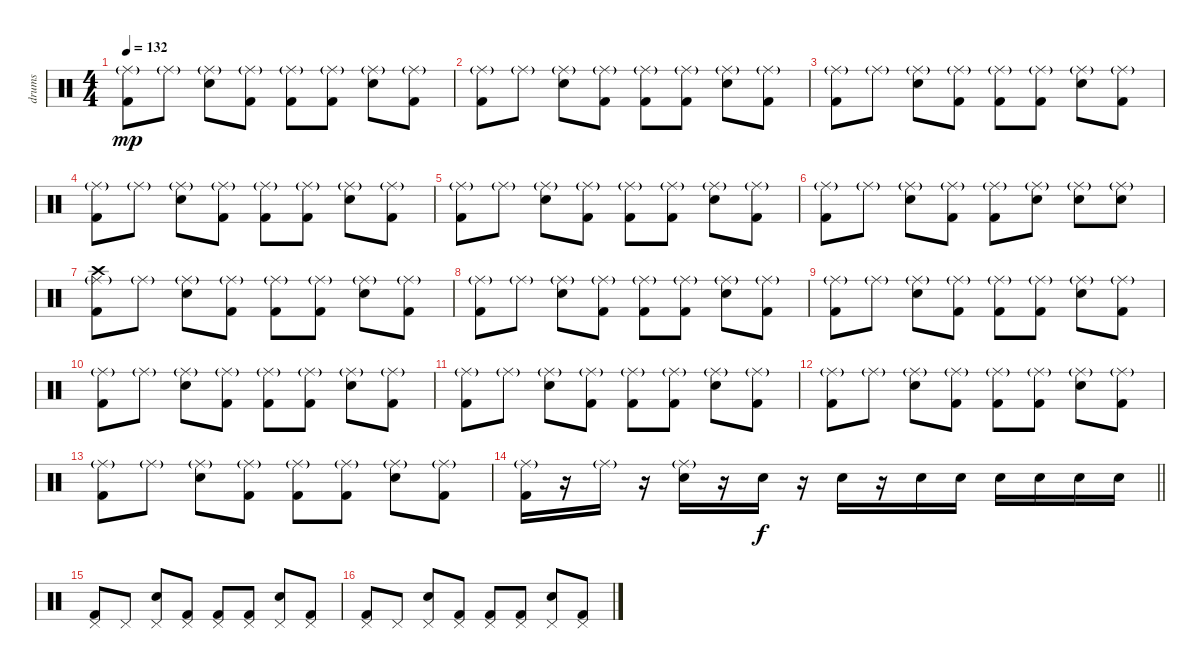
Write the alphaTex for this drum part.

\track ("drums" "drums") {instrument percussion}
\staff {score}
\articulation defaults
\ts (4 4)
\tempo 132
\clef neutral
\ks c
("Kick (hit) 2" "Ride (middle)"{g}).8{dy mp} "Ride (middle)"{g}.8 ("Electric Snare (hit)" "Ride (middle)"{g}).8 ("Kick (hit) 2" "Ride (middle)"{g}).8 ("Kick (hit) 2" "Ride (middle)"{g}).8 ("Kick (hit) 2" "Ride (middle)"{g}).8 ("Electric Snare (hit)" "Ride (middle)"{g}).8 ("Kick (hit) 2" "Ride (middle)"{g}).8 |
("Kick (hit) 2" "Ride (middle)"{g}).8 "Ride (middle)"{g}.8 ("Electric Snare (hit)" "Ride (middle)"{g}).8 ("Kick (hit) 2" "Ride (middle)"{g}).8 ("Kick (hit) 2" "Ride (middle)"{g}).8 ("Kick (hit) 2" "Ride (middle)"{g}).8 ("Electric Snare (hit)" "Ride (middle)"{g}).8 ("Kick (hit) 2" "Ride (middle)"{g}).8 |
("Kick (hit) 2" "Ride (middle)"{g}).8 "Ride (middle)"{g}.8 ("Electric Snare (hit)" "Ride (middle)"{g}).8 ("Kick (hit) 2" "Ride (middle)"{g}).8 ("Kick (hit) 2" "Ride (middle)"{g}).8 ("Kick (hit) 2" "Ride (middle)"{g}).8 ("Electric Snare (hit)" "Ride (middle)"{g}).8 ("Kick (hit) 2" "Ride (middle)"{g}).8 |
("Kick (hit) 2" "Ride (middle)"{g}).8 "Ride (middle)"{g}.8 ("Electric Snare (hit)" "Ride (middle)"{g}).8 ("Kick (hit) 2" "Ride (middle)"{g}).8 ("Kick (hit) 2" "Ride (middle)"{g}).8 ("Kick (hit) 2" "Ride (middle)"{g}).8 ("Electric Snare (hit)" "Ride (middle)"{g}).8 ("Kick (hit) 2" "Ride (middle)"{g}).8 |
("Kick (hit) 2" "Ride (middle)"{g}).8 "Ride (middle)"{g}.8 ("Electric Snare (hit)" "Ride (middle)"{g}).8 ("Kick (hit) 2" "Ride (middle)"{g}).8 ("Kick (hit) 2" "Ride (middle)"{g}).8 ("Kick (hit) 2" "Ride (middle)"{g}).8 ("Electric Snare (hit)" "Ride (middle)"{g}).8 ("Kick (hit) 2" "Ride (middle)"{g}).8 |
("Kick (hit) 2" "Ride (middle)"{g}).8 "Ride (middle)"{g}.8 ("Electric Snare (hit)" "Ride (middle)"{g}).8 ("Kick (hit) 2" "Ride (middle)"{g}).8 ("Kick (hit) 2" "Ride (middle)"{g}).8 ("Electric Snare (hit)" "Ride (middle)"{g}).8 ("Electric Snare (hit)" "Ride (middle)"{g}).8 ("Electric Snare (hit)" "Ride (middle)"{g}).8 |
("Kick (hit) 2" "Ride (middle)"{g} "Crash high (hit)").8 "Ride (middle)"{g}.8 ("Electric Snare (hit)" "Ride (middle)"{g}).8 ("Kick (hit) 2" "Ride (middle)"{g}).8 ("Kick (hit) 2" "Ride (middle)"{g}).8 ("Kick (hit) 2" "Ride (middle)"{g}).8 ("Electric Snare (hit)" "Ride (middle)"{g}).8 ("Kick (hit) 2" "Ride (middle)"{g}).8 |
("Kick (hit) 2" "Ride (middle)"{g}).8 "Ride (middle)"{g}.8 ("Electric Snare (hit)" "Ride (middle)"{g}).8 ("Kick (hit) 2" "Ride (middle)"{g}).8 ("Kick (hit) 2" "Ride (middle)"{g}).8 ("Kick (hit) 2" "Ride (middle)"{g}).8 ("Electric Snare (hit)" "Ride (middle)"{g}).8 ("Kick (hit) 2" "Ride (middle)"{g}).8 |
("Kick (hit) 2" "Ride (middle)"{g}).8 "Ride (middle)"{g}.8 ("Electric Snare (hit)" "Ride (middle)"{g}).8 ("Kick (hit) 2" "Ride (middle)"{g}).8 ("Kick (hit) 2" "Ride (middle)"{g}).8 ("Kick (hit) 2" "Ride (middle)"{g}).8 ("Electric Snare (hit)" "Ride (middle)"{g}).8 ("Kick (hit) 2" "Ride (middle)"{g}).8 |
("Kick (hit) 2" "Ride (middle)"{g}).8 "Ride (middle)"{g}.8 ("Electric Snare (hit)" "Ride (middle)"{g}).8 ("Kick (hit) 2" "Ride (middle)"{g}).8 ("Kick (hit) 2" "Ride (middle)"{g}).8 ("Kick (hit) 2" "Ride (middle)"{g}).8 ("Electric Snare (hit)" "Ride (middle)"{g}).8 ("Kick (hit) 2" "Ride (middle)"{g}).8 |
("Kick (hit) 2" "Ride (middle)"{g}).8 "Ride (middle)"{g}.8 ("Electric Snare (hit)" "Ride (middle)"{g}).8 ("Kick (hit) 2" "Ride (middle)"{g}).8 ("Kick (hit) 2" "Ride (middle)"{g}).8 ("Kick (hit) 2" "Ride (middle)"{g}).8 ("Electric Snare (hit)" "Ride (middle)"{g}).8 ("Kick (hit) 2" "Ride (middle)"{g}).8 |
("Kick (hit) 2" "Ride (middle)"{g}).8 "Ride (middle)"{g}.8 ("Electric Snare (hit)" "Ride (middle)"{g}).8 ("Kick (hit) 2" "Ride (middle)"{g}).8 ("Kick (hit) 2" "Ride (middle)"{g}).8 ("Kick (hit) 2" "Ride (middle)"{g}).8 ("Electric Snare (hit)" "Ride (middle)"{g}).8 ("Kick (hit) 2" "Ride (middle)"{g}).8 |
("Kick (hit) 2" "Ride (middle)"{g}).8 "Ride (middle)"{g}.8 ("Electric Snare (hit)" "Ride (middle)"{g}).8 ("Kick (hit) 2" "Ride (middle)"{g}).8 ("Kick (hit) 2" "Ride (middle)"{g}).8 ("Kick (hit) 2" "Ride (middle)"{g}).8 ("Electric Snare (hit)" "Ride (middle)"{g}).8 ("Kick (hit) 2" "Ride (middle)"{g}).8 |
\barLineRight lightlight
("Kick (hit) 2" "Ride (middle)"{g}).16 r.16 "Ride (middle)"{g}.16 r.16 ("Electric Snare (hit)" "Ride (middle)"{g}).16 r.16 "Electric Snare (hit)".16{dy f} r.16 "Electric Snare (hit)".16 r.16 "Electric Snare (hit)".16 "Electric Snare (hit)".16 "Electric Snare (hit)".16 "Electric Snare (hit)".16 "Electric Snare (hit)".16 "Electric Snare (hit)".16 |
("Kick (hit) 2" "Pedal Hi-Hat (hit)").8 "Pedal Hi-Hat (hit)".8 ("Electric Snare (hit)" "Pedal Hi-Hat (hit)").8 ("Kick (hit) 2" "Pedal Hi-Hat (hit)").8 ("Kick (hit) 2" "Pedal Hi-Hat (hit)").8 ("Kick (hit) 2" "Pedal Hi-Hat (hit)").8 ("Electric Snare (hit)" "Pedal Hi-Hat (hit)").8 ("Kick (hit) 2" "Pedal Hi-Hat (hit)").8 |
("Kick (hit) 2" "Pedal Hi-Hat (hit)").8 "Pedal Hi-Hat (hit)".8 ("Electric Snare (hit)" "Pedal Hi-Hat (hit)").8 ("Kick (hit) 2" "Pedal Hi-Hat (hit)").8 ("Kick (hit) 2" "Pedal Hi-Hat (hit)").8 ("Kick (hit) 2" "Pedal Hi-Hat (hit)").8 ("Electric Snare (hit)" "Pedal Hi-Hat (hit)").8 ("Kick (hit) 2" "Pedal Hi-Hat (hit)").8
